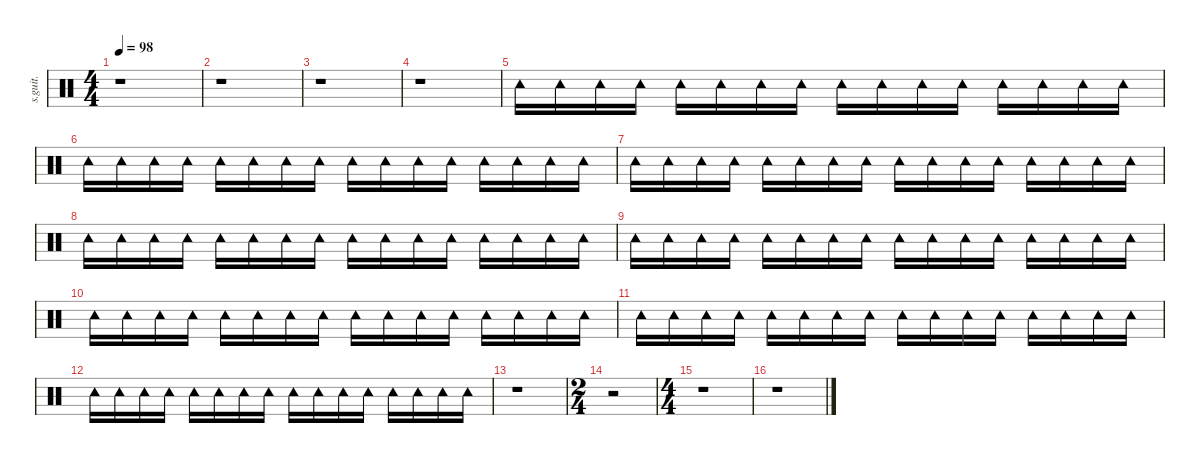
\defaultSystemsLayout 4
\hideDynamics
\bracketExtendMode nobrackets
\track ("Additional Percussion" "s.guit.") {instrument percussion}
\staff {score}
\articulation defaults
\ts (4 4)
\tempo 98
\clef neutral
\ks c
r.1{dy ff} |
r.1 |
r.1 |
r.1 |
"Tambourine (hit)".16 "Tambourine (hit)".16 "Tambourine (hit)".16 "Tambourine (hit)".16 "Tambourine (hit)".16 "Tambourine (hit)".16 "Tambourine (hit)".16 "Tambourine (hit)".16 "Tambourine (hit)".16 "Tambourine (hit)".16 "Tambourine (hit)".16 "Tambourine (hit)".16 "Tambourine (hit)".16 "Tambourine (hit)".16 "Tambourine (hit)".16 "Tambourine (hit)".16 |
"Tambourine (hit)".16 "Tambourine (hit)".16 "Tambourine (hit)".16 "Tambourine (hit)".16 "Tambourine (hit)".16 "Tambourine (hit)".16 "Tambourine (hit)".16 "Tambourine (hit)".16 "Tambourine (hit)".16 "Tambourine (hit)".16 "Tambourine (hit)".16 "Tambourine (hit)".16 "Tambourine (hit)".16 "Tambourine (hit)".16 "Tambourine (hit)".16 "Tambourine (hit)".16 |
"Tambourine (hit)".16 "Tambourine (hit)".16 "Tambourine (hit)".16 "Tambourine (hit)".16 "Tambourine (hit)".16 "Tambourine (hit)".16 "Tambourine (hit)".16 "Tambourine (hit)".16 "Tambourine (hit)".16 "Tambourine (hit)".16 "Tambourine (hit)".16 "Tambourine (hit)".16 "Tambourine (hit)".16 "Tambourine (hit)".16 "Tambourine (hit)".16 "Tambourine (hit)".16 |
"Tambourine (hit)".16 "Tambourine (hit)".16 "Tambourine (hit)".16 "Tambourine (hit)".16 "Tambourine (hit)".16 "Tambourine (hit)".16 "Tambourine (hit)".16 "Tambourine (hit)".16 "Tambourine (hit)".16 "Tambourine (hit)".16 "Tambourine (hit)".16 "Tambourine (hit)".16 "Tambourine (hit)".16 "Tambourine (hit)".16 "Tambourine (hit)".16 "Tambourine (hit)".16 |
"Tambourine (hit)".16 "Tambourine (hit)".16 "Tambourine (hit)".16 "Tambourine (hit)".16 "Tambourine (hit)".16 "Tambourine (hit)".16 "Tambourine (hit)".16 "Tambourine (hit)".16 "Tambourine (hit)".16 "Tambourine (hit)".16 "Tambourine (hit)".16 "Tambourine (hit)".16 "Tambourine (hit)".16 "Tambourine (hit)".16 "Tambourine (hit)".16 "Tambourine (hit)".16 |
"Tambourine (hit)".16 "Tambourine (hit)".16 "Tambourine (hit)".16 "Tambourine (hit)".16 "Tambourine (hit)".16 "Tambourine (hit)".16 "Tambourine (hit)".16 "Tambourine (hit)".16 "Tambourine (hit)".16 "Tambourine (hit)".16 "Tambourine (hit)".16 "Tambourine (hit)".16 "Tambourine (hit)".16 "Tambourine (hit)".16 "Tambourine (hit)".16 "Tambourine (hit)".16 |
"Tambourine (hit)".16 "Tambourine (hit)".16 "Tambourine (hit)".16 "Tambourine (hit)".16 "Tambourine (hit)".16 "Tambourine (hit)".16 "Tambourine (hit)".16 "Tambourine (hit)".16 "Tambourine (hit)".16 "Tambourine (hit)".16 "Tambourine (hit)".16 "Tambourine (hit)".16 "Tambourine (hit)".16 "Tambourine (hit)".16 "Tambourine (hit)".16 "Tambourine (hit)".16 |
"Tambourine (hit)".16 "Tambourine (hit)".16 "Tambourine (hit)".16 "Tambourine (hit)".16 "Tambourine (hit)".16 "Tambourine (hit)".16 "Tambourine (hit)".16 "Tambourine (hit)".16 "Tambourine (hit)".16 "Tambourine (hit)".16 "Tambourine (hit)".16 "Tambourine (hit)".16 "Tambourine (hit)".16 "Tambourine (hit)".16 "Tambourine (hit)".16 "Tambourine (hit)".16 |
r.1 |
\ts (2 4)
\beaming (8 2 2 2 2)
r.2 |
\ts (4 4)
\beaming (8 2 2 2 2)
r.1 |
r.1
